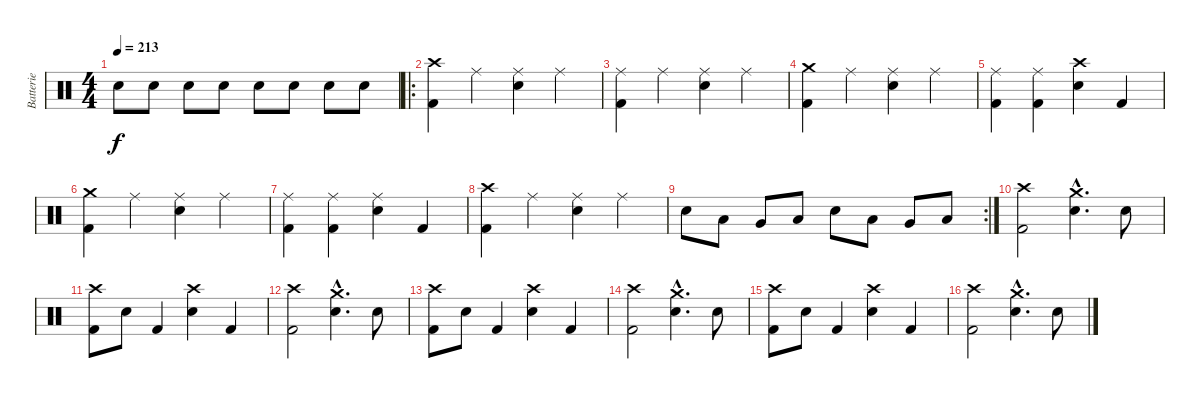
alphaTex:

\track ("Batterie" "Batterie") {instrument percussion}
\staff {score}
\articulation defaults
\ts (4 4)
\tempo 213
\clef neutral
\ks c "Electric Snare (hit)".8{dy f} "Electric Snare (hit)".8 "Electric Snare (hit)".8 "Electric Snare (hit)".8 "Electric Snare (hit)".8 "Electric Snare (hit)".8 "Electric Snare (hit)".8 "Electric Snare (hit)".8
|
\ro
("Crash high (hit)" "Kick (hit) 2").4 "Ride (middle)".4 ("Ride (middle)" "Electric Snare (hit)").4 "Ride (middle)".4 |
("Ride (middle)" "Kick (hit) 2").4 "Ride (middle)".4 ("Ride (middle)" "Electric Snare (hit)").4 "Ride (middle)".4 |
("Crash medium (hit)" "Kick (hit) 2").4 "Ride (middle)".4 ("Electric Snare (hit)" "Ride (middle)").4 "Ride (middle)".4 |
("Ride (middle)" "Kick (hit) 2").4 ("Ride (middle)" "Kick (hit) 2").4 ("Crash high (hit)" "Electric Snare (hit)").4 "Kick (hit) 2".4 |
("Crash medium (hit)" "Kick (hit) 2").4 "Ride (middle)".4 ("Ride (middle)" "Electric Snare (hit)").4 "Ride (middle)".4 |
("Ride (middle)" "Kick (hit) 2").4 ("Ride (middle)" "Kick (hit) 2").4 ("Ride (middle)" "Electric Snare (hit)").4 "Kick (hit) 2".4 |
("Crash high (hit)" "Kick (hit) 2").4 "Ride (middle)".4 ("Ride (middle)" "Electric Snare (hit)").4 "Ride (middle)".4 |
\rc 2 "Electric Snare (hit)".8 "Low Tom (hit)".8 "Very Low Tom (hit)".8 "Low Floor Tom (hit)".8 "Electric Snare (hit)".8 "Low Tom (hit)".8 "Very Low Tom (hit)".8 "Low Floor Tom (hit)".8
|
("Crash high (hit)" "Kick (hit) 2").2 ("Crash medium (hit)"{hac} "Electric Snare (hit)"{hac}).4{d} "Electric Snare (hit)".8 |
("Crash high (hit)" "Kick (hit) 2").8 "Electric Snare (hit)".8 "Kick (hit) 2".4 ("Crash high (hit)" "Electric Snare (hit)").4 "Kick (hit) 2".4 |
("Crash high (hit)" "Kick (hit) 2").2 ("Crash medium (hit)"{hac} "Electric Snare (hit)"{hac}).4{d} "Electric Snare (hit)".8 |
("Crash high (hit)" "Kick (hit) 2").8 "Electric Snare (hit)".8 "Kick (hit) 2".4 ("Crash high (hit)" "Electric Snare (hit)").4 "Kick (hit) 2".4 |
("Crash high (hit)" "Kick (hit) 2").2 ("Crash medium (hit)"{hac} "Electric Snare (hit)"{hac}).4{d} "Electric Snare (hit)".8 |
("Crash high (hit)" "Kick (hit) 2").8 "Electric Snare (hit)".8 "Kick (hit) 2".4 ("Crash high (hit)" "Electric Snare (hit)").4 "Kick (hit) 2".4 |
("Crash high (hit)" "Kick (hit) 2").2 ("Crash medium (hit)"{hac} "Electric Snare (hit)"{hac}).4{d} "Electric Snare (hit)".8
